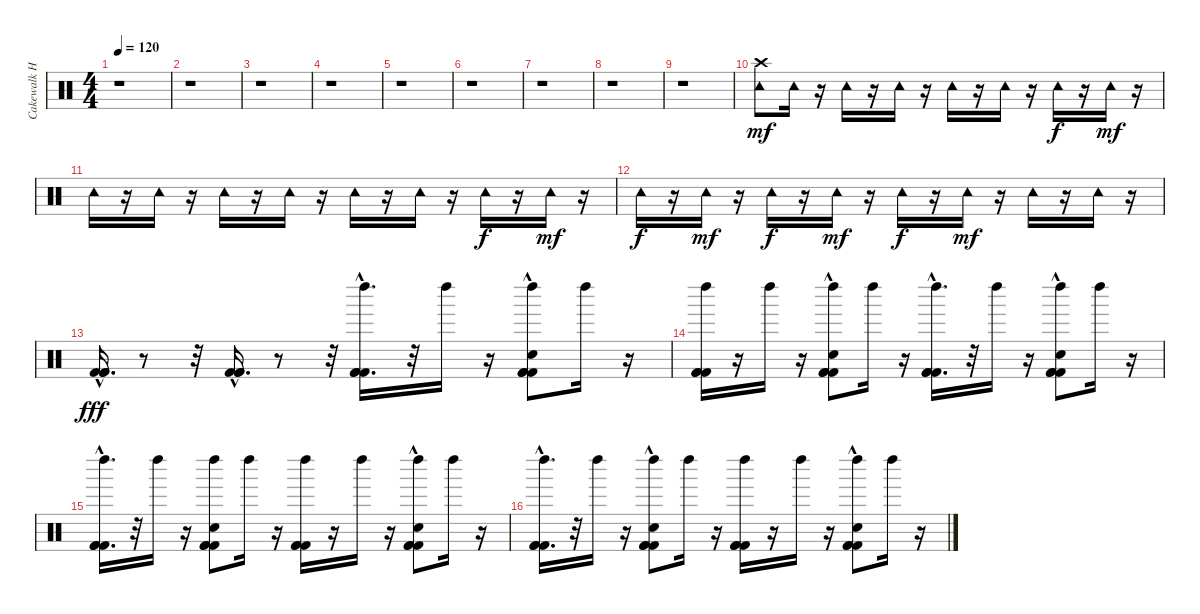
\track ("Cakewalk Home Studio 5.0" "Cakewalk H") {instrument percussion}
\staff {score}
\articulation defaults
\ts (4 4)
\tempo 120
\clef neutral
\ks c
r.1{dy mf} |
r.1 |
r.1 |
r.1 |
r.1 |
r.1 |
r.1 |
r.1 |
r.1 |
("Crash high (hit)" "Tambourine (hit)").8 "Tambourine (hit)".16 r.16 "Tambourine (hit)".16 r.16 "Tambourine (hit)".16 r.16 "Tambourine (hit)".16 r.16 "Tambourine (hit)".16 r.16 "Tambourine (hit)".16{dy f} r.16 "Tambourine (hit)".16{dy mf} r.16 |
"Tambourine (hit)".16 r.16 "Tambourine (hit)".16 r.16 "Tambourine (hit)".16 r.16 "Tambourine (hit)".16 r.16 "Tambourine (hit)".16 r.16 "Tambourine (hit)".16 r.16 "Tambourine (hit)".16{dy f} r.16 "Tambourine (hit)".16{dy mf} r.16 |
"Tambourine (hit)".16{dy f} r.16 "Tambourine (hit)".16{dy mf} r.16 "Tambourine (hit)".16{dy f} r.16 "Tambourine (hit)".16{dy mf} r.16 "Tambourine (hit)".16{dy f} r.16 "Tambourine (hit)".16{dy mf} r.16 "Tambourine (hit)".16 r.16 "Tambourine (hit)".16 r.16 |
("Kick (hit) 2"{hac} "Kick (hit) 2"{hac} "Kick (hit) 2"{hac}).16{d dy fff} r.8 r.32 ("Kick (hit) 2"{hac} "Kick (hit) 2"{hac} "Kick (hit) 2"{hac}).16{d} r.8 r.32 ("Kick (hit) 2"{hac} "Left Maraca (hit)" "Kick (hit) 2"{hac} "Kick (hit) 2"{hac}).16{d} r.32 "Left Maraca (hit)".16 r.16 ("Kick (hit) 2"{hac} "Left Maraca (hit)" "Hand Clap (hit)" "Kick (hit) 2"{hac} "Kick (hit) 2"{hac}).8 "Left Maraca (hit)".16 r.16 |
("Left Maraca (hit)" "Kick (hit) 2" "Kick (hit) 2" "Kick (hit) 2").16 r.16 "Left Maraca (hit)".16 r.16 ("Left Maraca (hit)" "Hand Clap (hit)" "Kick (hit) 2"{hac} "Kick (hit) 2"{hac} "Kick (hit) 2"{hac}).8 "Left Maraca (hit)".16 r.16 ("Left Maraca (hit)" "Kick (hit) 2"{hac} "Kick (hit) 2"{hac} "Kick (hit) 2"{hac}).16{d} r.32 "Left Maraca (hit)".16 r.16 ("Left Maraca (hit)" "Hand Clap (hit)" "Kick (hit) 2"{hac} "Kick (hit) 2"{hac} "Kick (hit) 2"{hac}).8 "Left Maraca (hit)".16 r.16 |
("Left Maraca (hit)" "Kick (hit) 2"{hac} "Kick (hit) 2"{hac} "Kick (hit) 2"{hac}).16{d} r.32 "Left Maraca (hit)".16 r.16 ("Left Maraca (hit)" "Hand Clap (hit)" "Kick (hit) 2" "Kick (hit) 2" "Kick (hit) 2").8 "Left Maraca (hit)".16 r.16 ("Left Maraca (hit)" "Kick (hit) 2" "Kick (hit) 2" "Kick (hit) 2").16 r.16 "Left Maraca (hit)".16 r.16 ("Left Maraca (hit)" "Hand Clap (hit)" "Kick (hit) 2"{hac} "Kick (hit) 2"{hac} "Kick (hit) 2"{hac}).8 "Left Maraca (hit)".16 r.16 |
("Left Maraca (hit)" "Kick (hit) 2"{hac} "Kick (hit) 2"{hac} "Kick (hit) 2"{hac}).16{d} r.32 "Left Maraca (hit)".16 r.16 ("Left Maraca (hit)" "Hand Clap (hit)" "Kick (hit) 2"{hac} "Kick (hit) 2"{hac} "Kick (hit) 2"{hac}).8 "Left Maraca (hit)".16 r.16 ("Left Maraca (hit)" "Kick (hit) 2" "Kick (hit) 2" "Kick (hit) 2").16 r.16 "Left Maraca (hit)".16 r.16 ("Left Maraca (hit)" "Hand Clap (hit)" "Kick (hit) 2"{hac} "Kick (hit) 2"{hac} "Kick (hit) 2"{hac}).8 "Left Maraca (hit)".16 r.16
